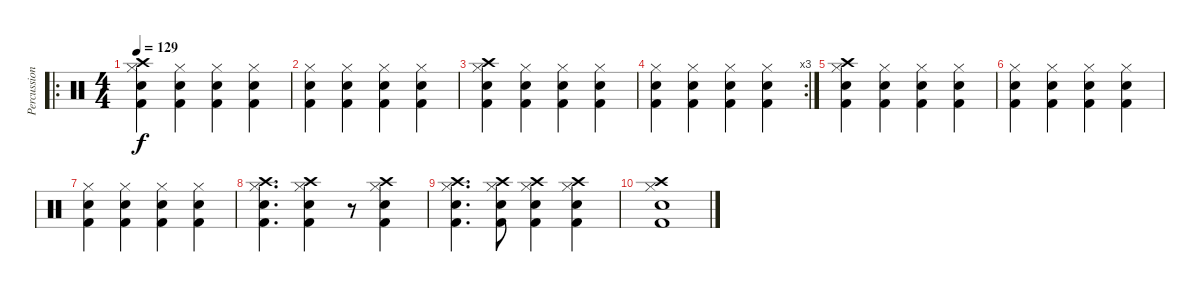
\track ("Percussion" "Percussion") {instrument percussion}
\staff {score}
\articulation defaults
\ro
\ts (4 4)
\tempo 129
\clef neutral
\ks c
("Crash high (hit)" "Hi-Hat (closed)" "Electric Snare (hit)" "Kick (hit) 2").4{dy f} ("Hi-Hat (closed)" "Electric Snare (hit)" "Kick (hit) 2").4 ("Hi-Hat (closed)" "Electric Snare (hit)" "Kick (hit) 2").4 ("Hi-Hat (closed)" "Electric Snare (hit)" "Kick (hit) 2").4 |
("Hi-Hat (closed)" "Electric Snare (hit)" "Kick (hit) 2").4 ("Hi-Hat (closed)" "Electric Snare (hit)" "Kick (hit) 2").4 ("Hi-Hat (closed)" "Electric Snare (hit)" "Kick (hit) 2").4 ("Hi-Hat (closed)" "Electric Snare (hit)" "Kick (hit) 2").4 |
("Crash high (hit)" "Hi-Hat (closed)" "Electric Snare (hit)" "Kick (hit) 2").4 ("Hi-Hat (closed)" "Electric Snare (hit)" "Kick (hit) 2").4 ("Hi-Hat (closed)" "Electric Snare (hit)" "Kick (hit) 2").4 ("Hi-Hat (closed)" "Electric Snare (hit)" "Kick (hit) 2").4 |
\rc 3
("Hi-Hat (closed)" "Electric Snare (hit)" "Kick (hit) 2").4 ("Hi-Hat (closed)" "Electric Snare (hit)" "Kick (hit) 2").4 ("Hi-Hat (closed)" "Electric Snare (hit)" "Kick (hit) 2").4 ("Hi-Hat (closed)" "Electric Snare (hit)" "Kick (hit) 2").4 |
("Crash high (hit)" "Hi-Hat (closed)" "Electric Snare (hit)" "Kick (hit) 2").4 ("Hi-Hat (closed)" "Electric Snare (hit)" "Kick (hit) 2").4 ("Hi-Hat (closed)" "Electric Snare (hit)" "Kick (hit) 2").4 ("Hi-Hat (closed)" "Electric Snare (hit)" "Kick (hit) 2").4 |
("Hi-Hat (closed)" "Electric Snare (hit)" "Kick (hit) 2").4 ("Hi-Hat (closed)" "Electric Snare (hit)" "Kick (hit) 2").4 ("Hi-Hat (closed)" "Electric Snare (hit)" "Kick (hit) 2").4 ("Hi-Hat (closed)" "Electric Snare (hit)" "Kick (hit) 2").4 |
("Hi-Hat (closed)" "Electric Snare (hit)" "Kick (hit) 2").4 ("Hi-Hat (closed)" "Electric Snare (hit)" "Kick (hit) 2").4 ("Hi-Hat (closed)" "Electric Snare (hit)" "Kick (hit) 2").4 ("Hi-Hat (closed)" "Electric Snare (hit)" "Kick (hit) 2").4 |
("Crash high (hit)" "Hi-Hat (closed)" "Electric Snare (hit)" "Kick (hit) 2").4{d} ("Crash high (hit)" "Hi-Hat (closed)" "Electric Snare (hit)" "Kick (hit) 2").4 r.8 ("Crash high (hit)" "Hi-Hat (closed)" "Electric Snare (hit)" "Kick (hit) 2").4 |
("Crash high (hit)" "Hi-Hat (closed)" "Electric Snare (hit)" "Kick (hit) 2").4{d} ("Crash high (hit)" "Hi-Hat (closed)" "Electric Snare (hit)" "Kick (hit) 2").8 ("Crash high (hit)" "Hi-Hat (closed)" "Electric Snare (hit)" "Kick (hit) 2").4 ("Crash high (hit)" "Hi-Hat (closed)" "Electric Snare (hit)" "Kick (hit) 2").4 |
("Crash high (hit)" "Hi-Hat (closed)" "Electric Snare (hit)" "Kick (hit) 2").1
